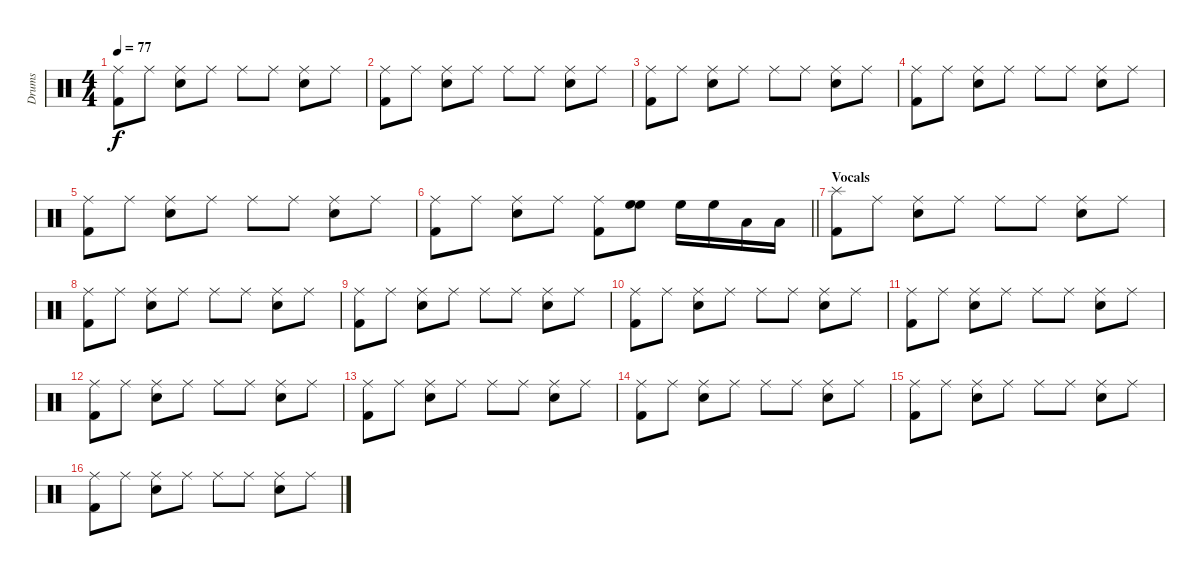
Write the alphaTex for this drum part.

\track ("Drums" "Drums") {instrument percussion}
\staff {score}
\articulation defaults
\ts (4 4)
\tempo 77
\clef neutral
\ks c
("Ride (middle)" "Kick (hit) 2").8{dy f} "Ride (middle)".8 ("Ride (middle)" "Snare (hit) 2").8 "Ride (middle)".8 "Ride (middle)".8 "Ride (middle)".8 ("Ride (middle)" "Snare (hit) 2").8 "Ride (middle)".8 |
("Ride (middle)" "Kick (hit) 2").8 "Ride (middle)".8 ("Ride (middle)" "Snare (hit) 2").8 "Ride (middle)".8 "Ride (middle)".8 "Ride (middle)".8 ("Ride (middle)" "Snare (hit) 2").8 "Ride (middle)".8 |
("Ride (middle)" "Kick (hit) 2").8 "Ride (middle)".8 ("Ride (middle)" "Snare (hit) 2").8 "Ride (middle)".8 "Ride (middle)".8 "Ride (middle)".8 ("Ride (middle)" "Snare (hit) 2").8 "Ride (middle)".8 |
("Ride (middle)" "Kick (hit) 2").8 "Ride (middle)".8 ("Ride (middle)" "Snare (hit) 2").8 "Ride (middle)".8 "Ride (middle)".8 "Ride (middle)".8 ("Ride (middle)" "Snare (hit) 2").8 "Ride (middle)".8 |
("Ride (middle)" "Kick (hit) 2").8 "Ride (middle)".8 ("Ride (middle)" "Snare (hit) 2").8 "Ride (middle)".8 "Ride (middle)".8 "Ride (middle)".8 ("Ride (middle)" "Snare (hit) 2").8 "Ride (middle)".8 |
\barLineRight lightlight
("Ride (middle)" "Kick (hit) 2").8 "Ride (middle)".8 ("Ride (middle)" "Snare (hit) 2").8 "Ride (middle)".8 ("Ride (middle)" "Kick (hit) 2").8 ("High Floor Tom (hit)" "High Floor Tom (hit)").8 "High Floor Tom (hit)".16 "High Floor Tom (hit)".16 "Low Tom (hit)".16 "Low Tom (hit)".16 |
\section ("" "Vocals")
("Splash (hit)" "Kick (hit) 2").8 "Ride (middle)".8 ("Ride (middle)" "Snare (hit) 2").8 "Ride (middle)".8 "Ride (middle)".8 "Ride (middle)".8 ("Ride (middle)" "Snare (hit) 2").8 "Ride (middle)".8 |
("Ride (middle)" "Kick (hit) 2").8 "Ride (middle)".8 ("Ride (middle)" "Snare (hit) 2").8 "Ride (middle)".8 "Ride (middle)".8 "Ride (middle)".8 ("Ride (middle)" "Snare (hit) 2").8 "Ride (middle)".8 |
("Ride (middle)" "Kick (hit) 2").8 "Ride (middle)".8 ("Ride (middle)" "Snare (hit) 2").8 "Ride (middle)".8 "Ride (middle)".8 "Ride (middle)".8 ("Ride (middle)" "Snare (hit) 2").8 "Ride (middle)".8 |
("Ride (middle)" "Kick (hit) 2").8 "Ride (middle)".8 ("Ride (middle)" "Snare (hit) 2").8 "Ride (middle)".8 "Ride (middle)".8 "Ride (middle)".8 ("Ride (middle)" "Snare (hit) 2").8 "Ride (middle)".8 |
("Ride (middle)" "Kick (hit) 2").8 "Ride (middle)".8 ("Ride (middle)" "Snare (hit) 2").8 "Ride (middle)".8 "Ride (middle)".8 "Ride (middle)".8 ("Ride (middle)" "Snare (hit) 2").8 "Ride (middle)".8 |
("Ride (middle)" "Kick (hit) 2").8 "Ride (middle)".8 ("Ride (middle)" "Snare (hit) 2").8 "Ride (middle)".8 "Ride (middle)".8 "Ride (middle)".8 ("Ride (middle)" "Snare (hit) 2").8 "Ride (middle)".8 |
("Ride (middle)" "Kick (hit) 2").8 "Ride (middle)".8 ("Ride (middle)" "Snare (hit) 2").8 "Ride (middle)".8 "Ride (middle)".8 "Ride (middle)".8 ("Ride (middle)" "Snare (hit) 2").8 "Ride (middle)".8 |
("Ride (middle)" "Kick (hit) 2").8 "Ride (middle)".8 ("Ride (middle)" "Snare (hit) 2").8 "Ride (middle)".8 "Ride (middle)".8 "Ride (middle)".8 ("Ride (middle)" "Snare (hit) 2").8 "Ride (middle)".8 |
("Ride (middle)" "Kick (hit) 2").8 "Ride (middle)".8 ("Ride (middle)" "Snare (hit) 2").8 "Ride (middle)".8 "Ride (middle)".8 "Ride (middle)".8 ("Ride (middle)" "Snare (hit) 2").8 "Ride (middle)".8 |
("Ride (middle)" "Kick (hit) 2").8 "Ride (middle)".8 ("Ride (middle)" "Snare (hit) 2").8 "Ride (middle)".8 "Ride (middle)".8 "Ride (middle)".8 ("Ride (middle)" "Snare (hit) 2").8 "Ride (middle)".8
